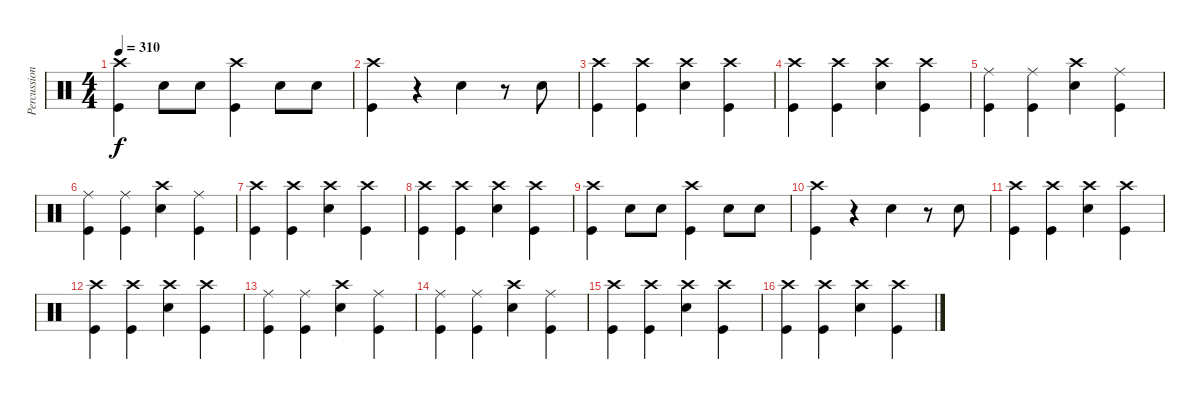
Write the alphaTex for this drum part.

\track ("Percussion" "Percussion") {instrument percussion}
\staff {score}
\articulation defaults
\ts (4 4)
\tempo 310
\clef neutral
\ks c
("Crash high (hit)" "Kick (hit)").4{dy f} "Electric Snare (hit)".8 "Electric Snare (hit)".8 ("Crash high (hit)" "Kick (hit)").4 "Electric Snare (hit)".8 "Electric Snare (hit)".8 |
("Crash high (hit)" "Kick (hit)").4 r.4 "Electric Snare (hit)".4 r.8 "Electric Snare (hit)".8 |
("Crash high (hit)" "Kick (hit)").4 ("Crash high (hit)" "Kick (hit)").4 ("Crash high (hit)" "Electric Snare (hit)").4 ("Crash high (hit)" "Kick (hit)").4 |
("Crash high (hit)" "Kick (hit)").4 ("Crash high (hit)" "Kick (hit)").4 ("Crash high (hit)" "Electric Snare (hit)").4 ("Crash high (hit)" "Kick (hit)").4 |
("Ride (middle)" "Kick (hit)").4 ("Ride (middle)" "Kick (hit)").4 ("Crash high (hit)" "Electric Snare (hit)").4 ("Ride (middle)" "Kick (hit)").4 |
("Ride (middle)" "Kick (hit)").4 ("Ride (middle)" "Kick (hit)").4 ("Crash high (hit)" "Electric Snare (hit)").4 ("Ride (middle)" "Kick (hit)").4 |
("Crash high (hit)" "Kick (hit)").4 ("Crash high (hit)" "Kick (hit)").4 ("Crash high (hit)" "Electric Snare (hit)").4 ("Crash high (hit)" "Kick (hit)").4 |
("Crash high (hit)" "Kick (hit)").4 ("Crash high (hit)" "Kick (hit)").4 ("Crash high (hit)" "Electric Snare (hit)").4 ("Crash high (hit)" "Kick (hit)").4 |
("Crash high (hit)" "Kick (hit)").4 "Electric Snare (hit)".8 "Electric Snare (hit)".8 ("Crash high (hit)" "Kick (hit)").4 "Electric Snare (hit)".8 "Electric Snare (hit)".8 |
("Crash high (hit)" "Kick (hit)").4 r.4 "Electric Snare (hit)".4 r.8 "Electric Snare (hit)".8 |
("Crash high (hit)" "Kick (hit)").4 ("Crash high (hit)" "Kick (hit)").4 ("Crash high (hit)" "Electric Snare (hit)").4 ("Crash high (hit)" "Kick (hit)").4 |
("Crash high (hit)" "Kick (hit)").4 ("Crash high (hit)" "Kick (hit)").4 ("Crash high (hit)" "Electric Snare (hit)").4 ("Crash high (hit)" "Kick (hit)").4 |
("Ride (middle)" "Kick (hit)").4 ("Ride (middle)" "Kick (hit)").4 ("Crash high (hit)" "Electric Snare (hit)").4 ("Ride (middle)" "Kick (hit)").4 |
("Ride (middle)" "Kick (hit)").4 ("Ride (middle)" "Kick (hit)").4 ("Crash high (hit)" "Electric Snare (hit)").4 ("Ride (middle)" "Kick (hit)").4 |
("Crash high (hit)" "Kick (hit)").4 ("Crash high (hit)" "Kick (hit)").4 ("Crash high (hit)" "Electric Snare (hit)").4 ("Crash high (hit)" "Kick (hit)").4 |
("Crash high (hit)" "Kick (hit)").4 ("Crash high (hit)" "Kick (hit)").4 ("Crash high (hit)" "Electric Snare (hit)").4 ("Crash high (hit)" "Kick (hit)").4
